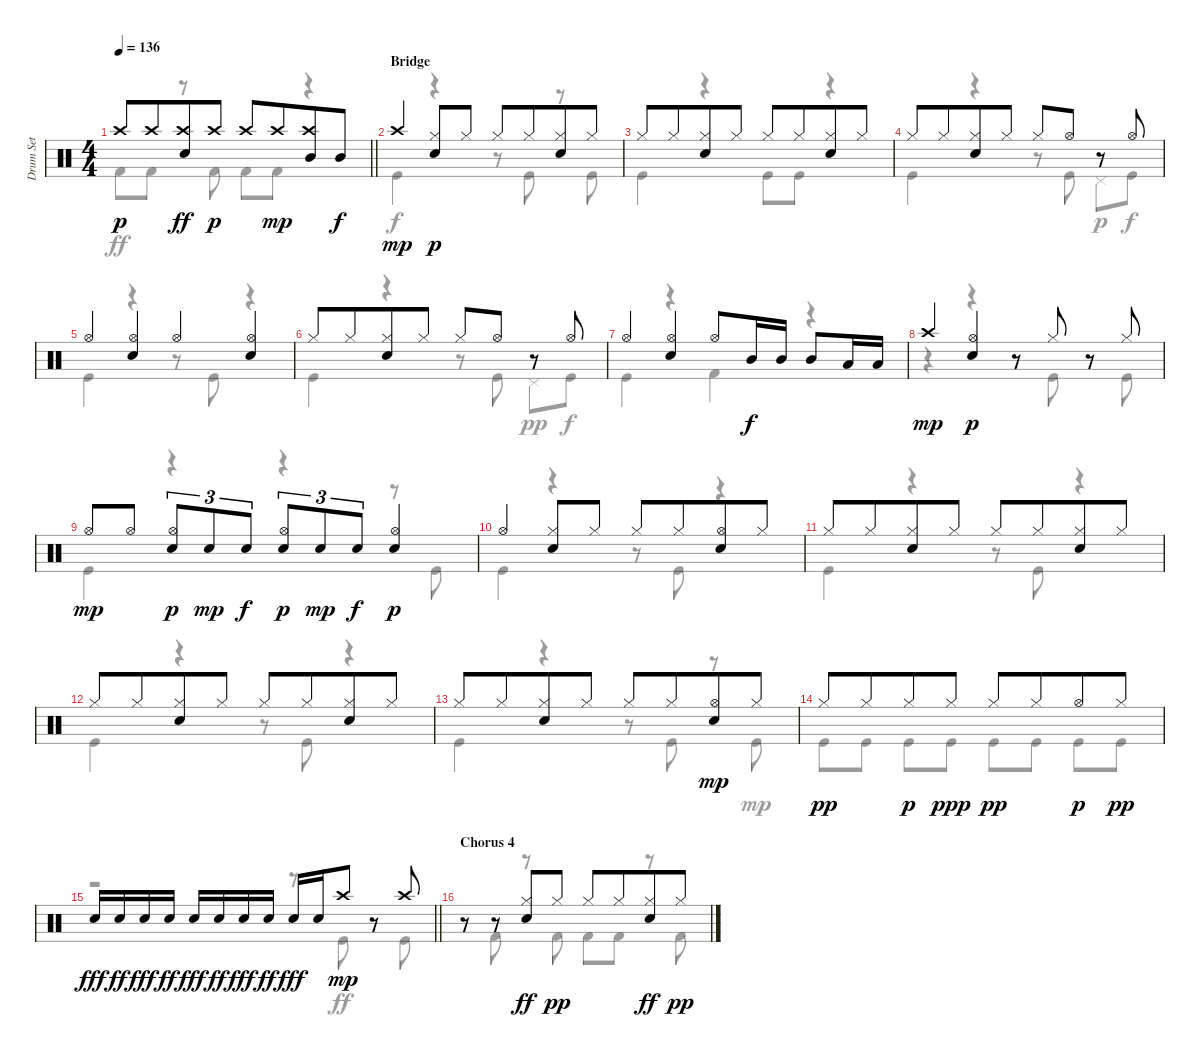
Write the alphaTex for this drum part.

\track ("Drum Set" "Drum Set") {instrument percussion}
\staff {score}
\articulation defaults
\voice
\ts (4 4)
\tempo 136
\clef neutral
\barLineRight lightlight
\ks c "Crash high (hit)".8{dy p} "Crash high (hit)".8{beam merge}
("Crash high (hit)" "Electric Snare (hit)").8{dy ff} "Crash high (hit)".8{dy p} "Crash high (hit)".8 "Crash high (hit)".8{dy mp beam merge} ("Crash high (hit)" "Mid Tom (hit)").8 "Mid Tom (hit)".8{dy f} |
\section ("" "Bridge")
"Crash high (hit)".4{dy mp} ("Hi-Hat (closed)" "Electric Snare (hit)").8{dy p} "Hi-Hat (closed)".8 "Hi-Hat (closed)".8 "Hi-Hat (closed)".8{beam merge} ("Hi-Hat (closed)" "Electric Snare (hit)").8 "Hi-Hat (closed)".8 |
"Hi-Hat (closed)".8 "Hi-Hat (closed)".8{beam merge} ("Hi-Hat (closed)" "Electric Snare (hit)").8 "Hi-Hat (closed)".8 "Hi-Hat (closed)".8 "Hi-Hat (closed)".8{beam merge} ("Hi-Hat (closed)" "Electric Snare (hit)").8 "Hi-Hat (closed)".8 |
"Hi-Hat (closed)".8 "Hi-Hat (closed)".8{beam merge} ("Hi-Hat (closed)" "Electric Snare (hit)").8 "Hi-Hat (closed)".8 "Hi-Hat (closed)".8 "Hi-Hat (open)".8 r.8 "Hi-Hat (open)".8 |
"Hi-Hat (open)".4 ("Hi-Hat (open)" "Electric Snare (hit)").4 "Hi-Hat (open)".4 ("Hi-Hat (open)" "Electric Snare (hit)").4 |
"Hi-Hat (closed)".8 "Hi-Hat (closed)".8{beam merge} ("Hi-Hat (closed)" "Electric Snare (hit)").8 "Hi-Hat (closed)".8 "Hi-Hat (closed)".8 "Hi-Hat (open)".8 r.8 "Hi-Hat (open)".8 |
"Hi-Hat (open)".4 ("Hi-Hat (open)" "Electric Snare (hit)").4 "Hi-Hat (open)".8 "Mid Tom (hit)".16{dy f} "Mid Tom (hit)".16 "Mid Tom (hit)".8 "Low Tom (hit)".16 "Low Tom (hit)".16 |
"Crash high (hit)".4{dy mp} ("Hi-Hat (open)" "Electric Snare (hit)").4{dy p} r.8 "Hi-Hat (closed)".8 r.8 "Hi-Hat (closed)".8 |
"Hi-Hat (open)".8{dy mp} "Hi-Hat (open)".8 ("Electric Snare (hit)" "Hi-Hat (open)").8{tu (3 2) dy p} "Electric Snare (hit)".8{tu (3 2) dy mp} "Electric Snare (hit)".8{tu (3 2) dy f} ("Electric Snare (hit)" "Hi-Hat (open)").8{tu (3 2) dy p} "Electric Snare (hit)".8{tu (3 2) dy mp} "Electric Snare (hit)".8{tu (3 2) dy f} ("Electric Snare (hit)" "Hi-Hat (open)").4{dy p} |
"Hi-Hat (open)".4 ("Hi-Hat (closed)" "Electric Snare (hit)").8 "Hi-Hat (closed)".8 "Hi-Hat (closed)".8 "Hi-Hat (closed)".8{beam merge} ("Hi-Hat (open)" "Electric Snare (hit)").8 "Hi-Hat (closed)".8 |
"Hi-Hat (closed)".8 "Hi-Hat (closed)".8{beam merge} ("Hi-Hat (closed)" "Electric Snare (hit)").8 "Hi-Hat (closed)".8 "Hi-Hat (closed)".8 "Hi-Hat (closed)".8{beam merge} ("Hi-Hat (closed)" "Electric Snare (hit)").8 "Hi-Hat (closed)".8 |
"Hi-Hat (closed)".8 "Hi-Hat (closed)".8{beam merge} ("Hi-Hat (closed)" "Electric Snare (hit)").8 "Hi-Hat (closed)".8 "Hi-Hat (closed)".8 "Hi-Hat (closed)".8{beam merge} ("Hi-Hat (closed)" "Electric Snare (hit)").8 "Hi-Hat (closed)".8 |
"Hi-Hat (closed)".8 "Hi-Hat (closed)".8{beam merge} ("Hi-Hat (closed)" "Electric Snare (hit)").8 "Hi-Hat (closed)".8 "Hi-Hat (closed)".8 "Hi-Hat (closed)".8{beam merge} ("Hi-Hat (open)" "Electric Snare (hit)").8{dy mp} "Hi-Hat (closed)".8 |
"Hi-Hat (closed)".8{dy pp beam Up} "Hi-Hat (closed)".8{beam Up beam merge} "Hi-Hat (closed)".8{dy p beam Up} "Hi-Hat (closed)".8{dy ppp beam Up} "Hi-Hat (closed)".8{dy pp beam Up} "Hi-Hat (closed)".8{beam Up beam merge} "Hi-Hat (open)".8{dy p beam Up} "Hi-Hat (closed)".8{dy pp beam Up} |
\barLineRight lightlight "Electric Snare (hit)".16{dy fff} "Electric Snare (hit)".16{dy ff} "Electric Snare (hit)".16{dy fff} "Electric Snare (hit)".16{dy ff} "Electric Snare (hit)".16{dy fff} "Electric Snare (hit)".16{dy ff} "Electric Snare (hit)".16{dy fff} "Electric Snare (hit)".16{dy ff} "Electric Snare (hit)".16{dy fff} "Electric Snare (hit)".16 "Crash high (hit)".8{dy mp volume 0}
r.8 "Crash high (hit)".8{volume 13} |
\section ("" "Chorus 4")
r.8 r.8 ("Hi-Hat (closed)" "Electric Snare (hit)").8{dy ff} "Hi-Hat (closed)".8{dy pp} "Hi-Hat (closed)".8 "Hi-Hat (closed)".8{beam merge} ("Hi-Hat (closed)" "Electric Snare (hit)").8{dy ff} "Hi-Hat (closed)".8{dy pp}
\voice
\clef neutral
\ottava regular
\simile none
\barLineRight lightlight
\ks c "Kick (hit) 2".8{dy ff} "Kick (hit) 2".8
r.8 "Kick (hit) 2".8 "Kick (hit) 2".8 "Kick (hit) 2".8 r.4 |
"Kick (hit)".4{dy f} r.4 r.8 "Kick (hit)".8 r.8 "Kick (hit)".8 |
"Kick (hit)".4 r.4 "Kick (hit)".8 "Kick (hit)".8 r.4 |
"Kick (hit)".4 r.4 r.8 "Kick (hit)".8 "Pedal Hi-Hat (hit)".8{dy p} "Kick (hit)".8{dy f} |
"Kick (hit)".4 r.4 r.8 "Kick (hit)".8 r.4 |
"Kick (hit)".4 r.4 r.8 "Kick (hit)".8 "Pedal Hi-Hat (hit)".8{dy pp} "Kick (hit)".8{dy f} |
"Kick (hit)".4 r.4 "Kick (hit) 2".4 r.4 |
r.4 r.4 r.8 "Kick (hit)".8 r.8 "Kick (hit)".8 |
"Kick (hit)".4 r.4 r.4 r.8 "Kick (hit)".8 |
"Kick (hit)".4 r.4 r.8 "Kick (hit)".8 r.4 |
"Kick (hit)".4 r.4 r.8 "Kick (hit)".8 r.4 |
"Kick (hit)".4 r.4 r.8 "Kick (hit)".8 r.4 |
"Kick (hit)".4 r.4 r.8 "Kick (hit)".8 r.8 "Kick (hit)".8{dy mp} |
"Kick (hit)".8 "Kick (hit)".8 "Kick (hit)".8 "Kick (hit)".8 "Kick (hit)".8 "Kick (hit)".8 "Kick (hit)".8 "Kick (hit)".8 |
\barLineRight lightlight
r.2 r.8 "Kick (hit)".8{dy ff} r.8 "Kick (hit)".8 |
r.8 "Kick (hit) 2".8 r.8 "Kick (hit) 2".8 "Kick (hit) 2".8 "Kick (hit) 2".8 r.8 "Kick (hit) 2".8
